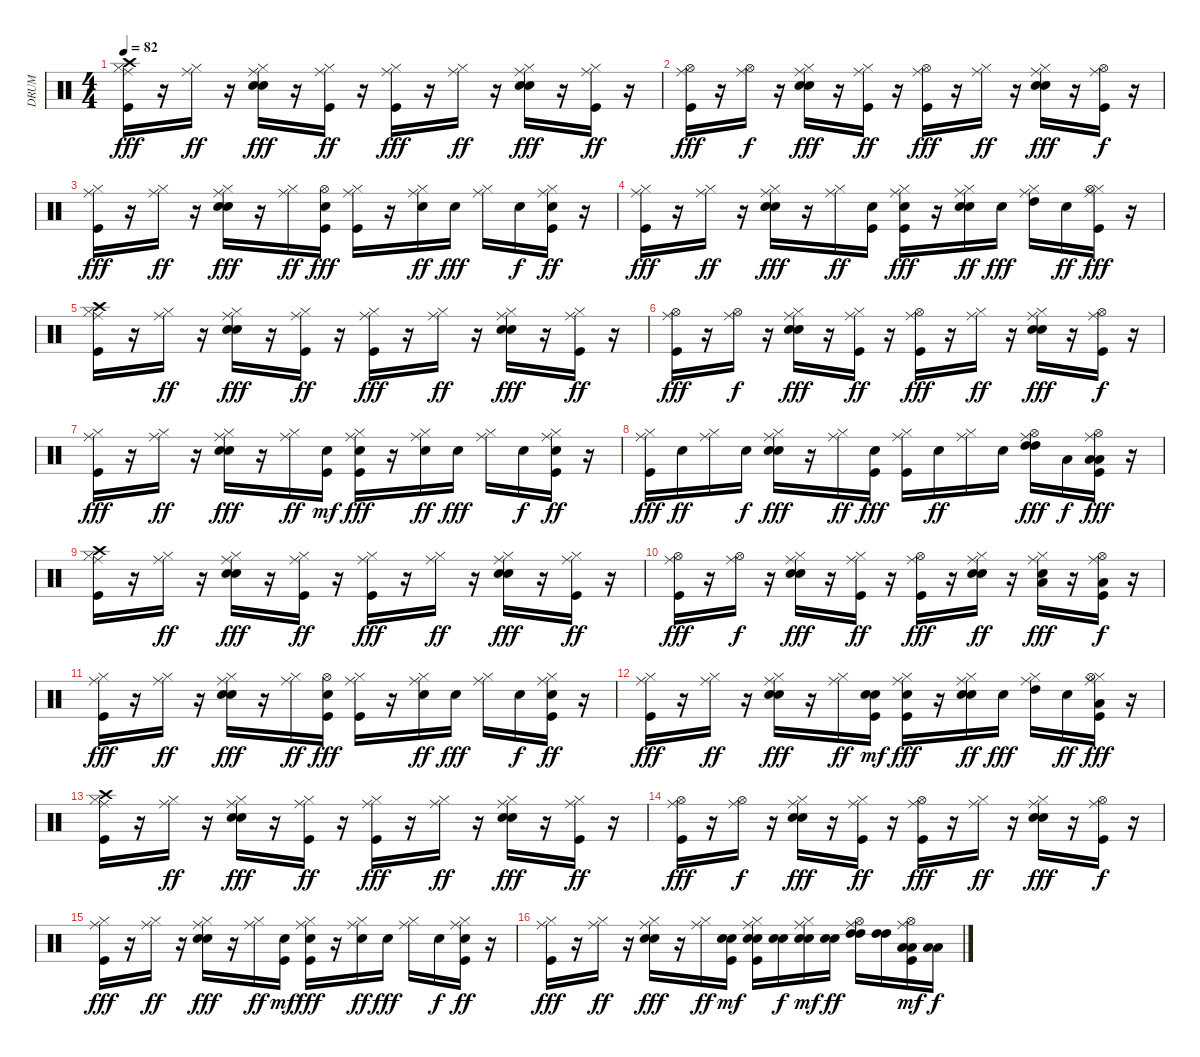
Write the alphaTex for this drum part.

\track ("DRUM" "DRUM") {instrument percussion}
\staff {score}
\articulation defaults
\ts (4 4)
\tempo 82
\clef neutral
\ks c
("Kick (hit)" "Hi-Hat (closed)" "Ride (middle)" "Crash high (hit)").16{dy fff} r.16 ("Hi-Hat (closed)" "Ride (middle)").16{dy ff} r.16 ("Snare (hit) 2" "Hi-Hat (closed)" "Ride (middle)" "Hand Clap (hit)").16{dy fff} r.16 ("Kick (hit)" "Hi-Hat (closed)" "Ride (middle)").16{dy ff} r.16 ("Kick (hit)" "Hi-Hat (closed)" "Ride (middle)").16{dy fff} r.16 ("Hi-Hat (closed)" "Ride (middle)").16{dy ff} r.16 ("Snare (hit) 2" "Hi-Hat (closed)" "Ride (middle)" "Hand Clap (hit)").16{dy fff} r.16 ("Kick (hit)" "Hi-Hat (closed)" "Ride (middle)").16{dy ff} r.16 |
("Kick (hit)" "Hi-Hat (open)" "Ride (middle)").16{dy fff} r.16 ("Hi-Hat (open)" "Ride (middle)").16{dy f} r.16 ("Snare (hit) 2" "Hi-Hat (closed)" "Ride (middle)" "Hand Clap (hit)").16{dy fff} r.16 ("Kick (hit)" "Hi-Hat (closed)" "Ride (middle)").16{dy ff} r.16 ("Kick (hit)" "Hi-Hat (open)" "Ride (middle)").16{dy fff} r.16 ("Hi-Hat (closed)" "Ride (middle)").16{dy ff} r.16 ("Snare (hit) 2" "Hi-Hat (closed)" "Ride (middle)" "Hand Clap (hit)").16{dy fff} r.16 ("Kick (hit)" "Hi-Hat (open)" "Ride (middle)").16{dy f} r.16 |
("Kick (hit)" "Hi-Hat (closed)" "Ride (middle)").16{dy fff} r.16 ("Hi-Hat (closed)" "Ride (middle)").16{dy ff} r.16 ("Snare (hit) 2" "Hi-Hat (closed)" "Ride (middle)" "Hand Clap (hit)").16{dy fff} r.16 ("Hi-Hat (closed)" "Ride (middle)").16{dy ff} ("Kick (hit)" "Snare (hit) 2" "Hi-Hat (open)").16{dy fff} ("Kick (hit)" "Hi-Hat (closed)" "Ride (middle)").16 r.16 ("Snare (hit) 2" "Hi-Hat (closed)" "Ride (middle)").16{dy ff} "Snare (hit) 2".16{dy fff} ("Hi-Hat (closed)" "Ride (middle)").16 "Snare (hit) 2".16{dy f} ("Kick (hit)" "Snare (hit) 2" "Hi-Hat (closed)" "Ride (middle)").16{dy ff} r.16 |
("Kick (hit)" "Hi-Hat (closed)" "Ride (middle)").16{dy fff} r.16 ("Hi-Hat (closed)" "Ride (middle)").16{dy ff} r.16 ("Snare (hit) 2" "Hi-Hat (closed)" "Ride (middle)" "Hand Clap (hit)").16{dy fff} r.16 ("Hi-Hat (closed)" "Ride (middle)").16{dy ff} ("Kick (hit)" "Snare (hit) 2").16 ("Kick (hit)" "Snare (hit) 2" "Hi-Hat (closed)" "Ride (middle)").16{dy fff} r.16 ("Snare (hit) 2" "Hi-Hat (closed)" "Ride (middle)" "Snare (hit) 2").16{dy ff} "Snare (hit) 2".16{dy fff} ("Hi-Hat (closed)" "Ride (middle)" "High Tom (hit)").16 "Snare (hit) 2".16{dy ff} ("Kick (hit)" "Hi-Hat (closed)" "Hi-Hat (open)" "Ride (middle)").16{dy fff} r.16 |
("Kick (hit)" "Hi-Hat (closed)" "Ride (middle)" "Crash high (hit)").16 r.16 ("Hi-Hat (closed)" "Ride (middle)").16{dy ff} r.16 ("Snare (hit) 2" "Hi-Hat (closed)" "Ride (middle)" "Hand Clap (hit)").16{dy fff} r.16 ("Kick (hit)" "Hi-Hat (closed)" "Ride (middle)").16{dy ff} r.16 ("Kick (hit)" "Hi-Hat (closed)" "Ride (middle)").16{dy fff} r.16 ("Hi-Hat (closed)" "Ride (middle)").16{dy ff} r.16 ("Snare (hit) 2" "Hi-Hat (closed)" "Ride (middle)" "Hand Clap (hit)").16{dy fff} r.16 ("Kick (hit)" "Hi-Hat (closed)" "Ride (middle)").16{dy ff} r.16 |
("Kick (hit)" "Hi-Hat (open)" "Ride (middle)").16{dy fff} r.16 ("Hi-Hat (open)" "Ride (middle)").16{dy f} r.16 ("Snare (hit) 2" "Hi-Hat (closed)" "Ride (middle)" "Hand Clap (hit)").16{dy fff} r.16 ("Kick (hit)" "Hi-Hat (closed)" "Ride (middle)").16{dy ff} r.16 ("Kick (hit)" "Hi-Hat (open)" "Ride (middle)").16{dy fff} r.16 ("Hi-Hat (closed)" "Ride (middle)").16{dy ff} r.16 ("Snare (hit) 2" "Hi-Hat (closed)" "Ride (middle)" "Hand Clap (hit)").16{dy fff} r.16 ("Kick (hit)" "Hi-Hat (open)" "Ride (middle)").16{dy f} r.16 |
("Kick (hit)" "Hi-Hat (closed)" "Ride (middle)").16{dy fff} r.16 ("Hi-Hat (closed)" "Ride (middle)").16{dy ff} r.16 ("Snare (hit) 2" "Hi-Hat (closed)" "Ride (middle)" "Hand Clap (hit)").16{dy fff} r.16 ("Hi-Hat (closed)" "Ride (middle)").16{dy ff} ("Kick (hit)" "Snare (hit) 2").16{dy mf} ("Kick (hit)" "Snare (hit) 2" "Hi-Hat (closed)" "Ride (middle)").16{dy fff} r.16 ("Snare (hit) 2" "Hi-Hat (closed)" "Ride (middle)").16{dy ff} "Snare (hit) 2".16{dy fff} ("Hi-Hat (closed)" "Ride (middle)").16 "Snare (hit) 2".16{dy f} ("Kick (hit)" "Snare (hit) 2" "Hi-Hat (closed)" "Ride (middle)").16{dy ff} r.16 |
("Kick (hit)" "Hi-Hat (closed)" "Ride (middle)").16{dy fff} "Snare (hit) 2".16{dy ff} ("Hi-Hat (closed)" "Ride (middle)").16 "Snare (hit) 2".16{dy f} ("Snare (hit) 2" "Hi-Hat (closed)" "Ride (middle)" "Hand Clap (hit)").16{dy fff} r.16 ("Hi-Hat (closed)" "Ride (middle)").16{dy ff} ("Kick (hit)" "Snare (hit) 2").16{dy fff} ("Kick (hit)" "Hi-Hat (closed)" "Ride (middle)").16 "Snare (hit) 2".16{dy ff} ("Hi-Hat (closed)" "Ride (middle)").16 "Snare (hit) 2".16 ("Hi-Hat (open)" "Ride (middle)" "High Tom (hit)" "High Tom (hit)").16{dy fff} "Low Floor Tom (hit)".16{dy f} ("Kick (hit)" "Hi-Hat (open)" "Ride (middle)" "Low Tom (hit)" "Low Tom (hit)").16{dy fff} r.16 |
("Kick (hit)" "Hi-Hat (closed)" "Ride (middle)" "Crash high (hit)").16 r.16 ("Hi-Hat (closed)" "Ride (middle)").16{dy ff} r.16 ("Snare (hit) 2" "Hi-Hat (closed)" "Ride (middle)" "Hand Clap (hit)").16{dy fff} r.16 ("Kick (hit)" "Hi-Hat (closed)" "Ride (middle)").16{dy ff} r.16 ("Kick (hit)" "Hi-Hat (closed)" "Ride (middle)").16{dy fff} r.16 ("Hi-Hat (closed)" "Ride (middle)").16{dy ff} r.16 ("Snare (hit) 2" "Hi-Hat (closed)" "Ride (middle)" "Hand Clap (hit)").16{dy fff} r.16 ("Kick (hit)" "Hi-Hat (closed)" "Ride (middle)").16{dy ff} r.16 |
("Kick (hit)" "Hi-Hat (open)" "Ride (middle)").16{dy fff} r.16 ("Hi-Hat (open)" "Ride (middle)").16{dy f} r.16 ("Snare (hit) 2" "Hi-Hat (closed)" "Ride (middle)" "Hand Clap (hit)").16{dy fff} r.16 ("Kick (hit)" "Hi-Hat (closed)" "Ride (middle)").16{dy ff} r.16 ("Kick (hit)" "Hi-Hat (open)" "Ride (middle)").16{dy fff} r.16 ("Snare (hit) 2" "Hi-Hat (closed)" "Ride (middle)" "Snare (hit) 2").16{dy ff} r.16 ("Hi-Hat (closed)" "Ride (middle)" "Low Tom (hit)" "Hand Clap (hit)").16{dy fff} r.16 ("Kick (hit)" "Hi-Hat (open)" "Ride (middle)" "Low Floor Tom (hit)").16{dy f} r.16 |
("Kick (hit)" "Hi-Hat (closed)" "Ride (middle)").16{dy fff} r.16 ("Hi-Hat (closed)" "Ride (middle)").16{dy ff} r.16 ("Snare (hit) 2" "Hi-Hat (closed)" "Ride (middle)" "Hand Clap (hit)").16{dy fff} r.16 ("Hi-Hat (closed)" "Ride (middle)").16{dy ff} ("Kick (hit)" "Snare (hit) 2" "Hi-Hat (open)").16{dy fff} ("Kick (hit)" "Hi-Hat (closed)" "Ride (middle)").16 r.16 ("Snare (hit) 2" "Hi-Hat (closed)" "Ride (middle)").16{dy ff} "Snare (hit) 2".16{dy fff} ("Hi-Hat (closed)" "Ride (middle)").16 "Snare (hit) 2".16{dy f} ("Kick (hit)" "Snare (hit) 2" "Hi-Hat (closed)" "Ride (middle)").16{dy ff} r.16 |
("Kick (hit)" "Hi-Hat (closed)" "Ride (middle)").16{dy fff} r.16 ("Hi-Hat (closed)" "Ride (middle)").16{dy ff} r.16 ("Snare (hit) 2" "Hi-Hat (closed)" "Ride (middle)" "Hand Clap (hit)").16{dy fff} r.16 ("Hi-Hat (closed)" "Ride (middle)").16{dy ff} ("Kick (hit)" "Snare (hit) 2" "Snare (hit) 2").16{dy mf} ("Kick (hit)" "Snare (hit) 2" "Hi-Hat (closed)" "Ride (middle)").16{dy fff} r.16 ("Snare (hit) 2" "Hi-Hat (closed)" "Ride (middle)" "Snare (hit) 2").16{dy ff} "Snare (hit) 2".16{dy fff} ("Hi-Hat (closed)" "Ride (middle)" "High Tom (hit)").16 "Snare (hit) 2".16{dy ff} ("Kick (hit)" "Hi-Hat (closed)" "Hi-Hat (open)" "Ride (middle)" "Low Floor Tom (hit)").16{dy fff} r.16 |
("Kick (hit)" "Hi-Hat (closed)" "Ride (middle)" "Crash high (hit)").16 r.16 ("Hi-Hat (closed)" "Ride (middle)").16{dy ff} r.16 ("Snare (hit) 2" "Hi-Hat (closed)" "Ride (middle)" "Hand Clap (hit)").16{dy fff} r.16 ("Kick (hit)" "Hi-Hat (closed)" "Ride (middle)").16{dy ff} r.16 ("Kick (hit)" "Hi-Hat (closed)" "Ride (middle)").16{dy fff} r.16 ("Hi-Hat (closed)" "Ride (middle)").16{dy ff} r.16 ("Snare (hit) 2" "Hi-Hat (closed)" "Ride (middle)" "Hand Clap (hit)").16{dy fff} r.16 ("Kick (hit)" "Hi-Hat (closed)" "Ride (middle)").16{dy ff} r.16 |
("Kick (hit)" "Hi-Hat (open)" "Ride (middle)").16{dy fff} r.16 ("Hi-Hat (open)" "Ride (middle)").16{dy f} r.16 ("Snare (hit) 2" "Hi-Hat (closed)" "Ride (middle)" "Hand Clap (hit)").16{dy fff} r.16 ("Kick (hit)" "Hi-Hat (closed)" "Ride (middle)").16{dy ff} r.16 ("Kick (hit)" "Hi-Hat (open)" "Ride (middle)").16{dy fff} r.16 ("Hi-Hat (closed)" "Ride (middle)").16{dy ff} r.16 ("Snare (hit) 2" "Hi-Hat (closed)" "Ride (middle)" "Hand Clap (hit)").16{dy fff} r.16 ("Kick (hit)" "Hi-Hat (open)" "Ride (middle)").16{dy f} r.16 |
("Kick (hit)" "Hi-Hat (closed)" "Ride (middle)").16{dy fff} r.16 ("Hi-Hat (closed)" "Ride (middle)").16{dy ff} r.16 ("Snare (hit) 2" "Hi-Hat (closed)" "Ride (middle)" "Hand Clap (hit)").16{dy fff} r.16 ("Hi-Hat (closed)" "Ride (middle)").16{dy ff} ("Kick (hit)" "Snare (hit) 2").16{dy mf} ("Kick (hit)" "Snare (hit) 2" "Hi-Hat (closed)" "Ride (middle)").16{dy fff} r.16 ("Snare (hit) 2" "Hi-Hat (closed)" "Ride (middle)").16{dy ff} "Snare (hit) 2".16{dy fff} ("Hi-Hat (closed)" "Ride (middle)").16 "Snare (hit) 2".16{dy f} ("Kick (hit)" "Snare (hit) 2" "Hi-Hat (closed)" "Ride (middle)").16{dy ff} r.16 |
("Kick (hit)" "Hi-Hat (closed)" "Ride (middle)").16{dy fff} r.16 ("Hi-Hat (closed)" "Ride (middle)").16{dy ff} r.16 ("Snare (hit) 2" "Hi-Hat (closed)" "Ride (middle)" "Hand Clap (hit)").16{dy fff} r.16 ("Hi-Hat (closed)" "Ride (middle)").16{dy ff} ("Kick (hit)" "Snare (hit) 2" "Snare (hit) 2").16{dy mf} ("Kick (hit)" "Snare (hit) 2" "Hi-Hat (closed)" "Ride (middle)" "Snare (hit) 2").16 ("Snare (hit) 2" "Snare (hit) 2").16{dy f} ("Snare (hit) 2" "Hi-Hat (closed)" "Ride (middle)" "Snare (hit) 2").16{dy mf} ("Snare (hit) 2" "Snare (hit) 2").16{dy ff} ("Hi-Hat (open)" "Ride (middle)" "High Tom (hit)" "High Tom (hit)").16 ("High Tom (hit)" "High Tom (hit)").16 ("Kick (hit)" "Hi-Hat (open)" "Ride (middle)" "Low Tom (hit)" "Low Tom (hit)").16{dy mf} ("Low Tom (hit)" "Low Floor Tom (hit)").16{dy f}
